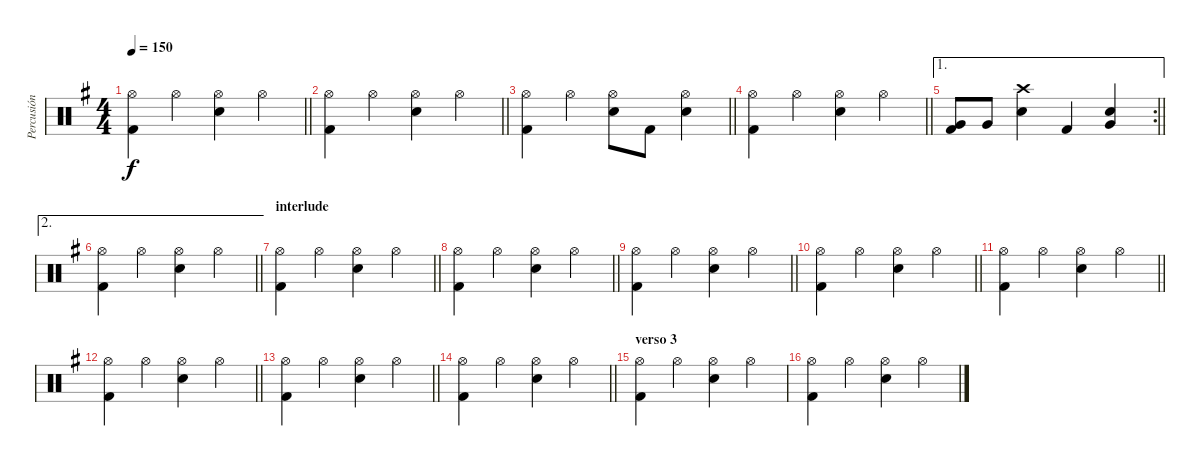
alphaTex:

\track ("Percusión" "Percusión") {instrument percussion}
\staff {score}
\articulation defaults
\ts (4 4)
\tempo 150
\clef neutral
\barLineRight lightlight
\ks eminor
("Hi-Hat (open)" "Kick (hit) 2").4{dy f} "Hi-Hat (open)".4 ("Hi-Hat (open)" "Electric Snare (hit)").4 "Hi-Hat (open)".4 |
\barLineRight lightlight
("Hi-Hat (open)" "Kick (hit) 2").4 "Hi-Hat (open)".4 ("Hi-Hat (open)" "Electric Snare (hit)").4 "Hi-Hat (open)".4 |
\barLineRight lightlight
("Hi-Hat (open)" "Kick (hit) 2").4 "Hi-Hat (open)".4 ("Hi-Hat (open)" "Electric Snare (hit)").8 "Kick (hit) 2".8 ("Hi-Hat (open)" "Electric Snare (hit)").4 |
\barLineRight lightlight
("Hi-Hat (open)" "Kick (hit) 2").4 "Hi-Hat (open)".4 ("Hi-Hat (open)" "Electric Snare (hit)").4 "Hi-Hat (open)".4 |
\ae 1
\rc 2
\barLineRight lightlight
("Very Low Tom (hit)" "Kick (hit) 2").8 "Very Low Tom (hit)".8 ("Crash high (hit)" "Electric Snare (hit)").4 "Kick (hit) 2".4 ("Electric Snare (hit)" "Very Low Tom (hit)").4 |
\ae 2
\barLineRight lightlight
("Hi-Hat (open)" "Kick (hit) 2").4 "Hi-Hat (open)".4 ("Hi-Hat (open)" "Electric Snare (hit)").4 "Hi-Hat (open)".4 |
\section ("" "interlude")
\barLineRight lightlight
("Hi-Hat (open)" "Kick (hit) 2").4 "Hi-Hat (open)".4 ("Hi-Hat (open)" "Electric Snare (hit)").4 "Hi-Hat (open)".4 |
\barLineRight lightlight
("Hi-Hat (open)" "Kick (hit) 2").4 "Hi-Hat (open)".4 ("Hi-Hat (open)" "Electric Snare (hit)").4 "Hi-Hat (open)".4 |
\barLineRight lightlight
("Hi-Hat (open)" "Kick (hit) 2").4 "Hi-Hat (open)".4 ("Hi-Hat (open)" "Electric Snare (hit)").4 "Hi-Hat (open)".4 |
\barLineRight lightlight
("Hi-Hat (open)" "Kick (hit) 2").4 "Hi-Hat (open)".4 ("Hi-Hat (open)" "Electric Snare (hit)").4 "Hi-Hat (open)".4 |
\barLineRight lightlight
("Hi-Hat (open)" "Kick (hit) 2").4 "Hi-Hat (open)".4 ("Hi-Hat (open)" "Electric Snare (hit)").4 "Hi-Hat (open)".4 |
\barLineRight lightlight
("Hi-Hat (open)" "Kick (hit) 2").4 "Hi-Hat (open)".4 ("Hi-Hat (open)" "Electric Snare (hit)").4 "Hi-Hat (open)".4 |
\barLineRight lightlight
("Hi-Hat (open)" "Kick (hit) 2").4 "Hi-Hat (open)".4 ("Hi-Hat (open)" "Electric Snare (hit)").4 "Hi-Hat (open)".4 |
\barLineRight lightlight
("Hi-Hat (open)" "Kick (hit) 2").4 "Hi-Hat (open)".4 ("Hi-Hat (open)" "Electric Snare (hit)").4 "Hi-Hat (open)".4 |
\section ("" "verso 3")
("Hi-Hat (open)" "Kick (hit) 2").4 "Hi-Hat (open)".4 ("Hi-Hat (open)" "Electric Snare (hit)").4 "Hi-Hat (open)".4 |
("Hi-Hat (open)" "Kick (hit) 2").4 "Hi-Hat (open)".4 ("Hi-Hat (open)" "Electric Snare (hit)").4 "Hi-Hat (open)".4
